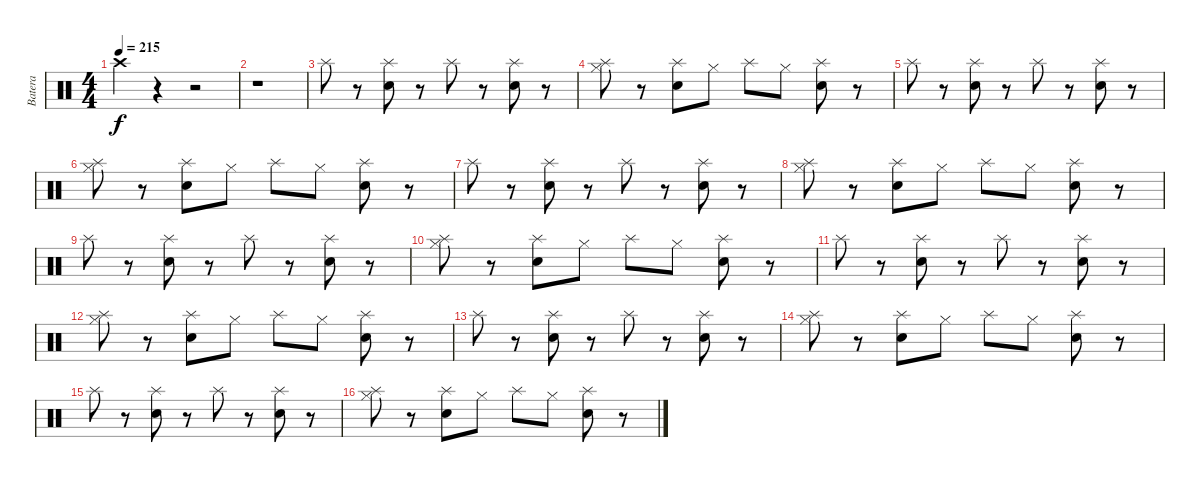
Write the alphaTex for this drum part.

\track ("Batera" "Batera") {instrument percussion}
\staff {score}
\articulation defaults
\ts (4 4)
\tempo 215
\clef neutral
\ks c "Crash high (hit)".4{dy f}
r.4 r.2 |
r.1 |
"Splash (hit)".8 r.8 ("Splash (hit)" "Electric Snare (hit)").8 r.8 "Splash (hit)".8 r.8 ("Splash (hit)" "Electric Snare (hit)").8 r.8 |
("Splash (hit)" "Hi-Hat (closed)").8 r.8 ("Splash (hit)" "Electric Snare (hit)").8 "Hi-Hat (closed)".8 "Splash (hit)".8 "Hi-Hat (closed)".8 ("Splash (hit)" "Electric Snare (hit)").8 r.8 |
"Splash (hit)".8 r.8 ("Splash (hit)" "Electric Snare (hit)").8 r.8 "Splash (hit)".8 r.8 ("Splash (hit)" "Electric Snare (hit)").8 r.8 |
("Splash (hit)" "Hi-Hat (closed)").8 r.8 ("Splash (hit)" "Electric Snare (hit)").8 "Hi-Hat (closed)".8 "Splash (hit)".8 "Hi-Hat (closed)".8 ("Splash (hit)" "Electric Snare (hit)").8 r.8 |
"Splash (hit)".8 r.8 ("Splash (hit)" "Electric Snare (hit)").8 r.8 "Splash (hit)".8 r.8 ("Splash (hit)" "Electric Snare (hit)").8 r.8 |
("Splash (hit)" "Hi-Hat (closed)").8 r.8 ("Splash (hit)" "Electric Snare (hit)").8 "Hi-Hat (closed)".8 "Splash (hit)".8 "Hi-Hat (closed)".8 ("Splash (hit)" "Electric Snare (hit)").8 r.8 |
"Splash (hit)".8 r.8 ("Splash (hit)" "Electric Snare (hit)").8 r.8 "Splash (hit)".8 r.8 ("Splash (hit)" "Electric Snare (hit)").8 r.8 |
("Splash (hit)" "Hi-Hat (closed)").8 r.8 ("Splash (hit)" "Electric Snare (hit)").8 "Hi-Hat (closed)".8 "Splash (hit)".8 "Hi-Hat (closed)".8 ("Splash (hit)" "Electric Snare (hit)").8 r.8 |
"Splash (hit)".8 r.8 ("Splash (hit)" "Electric Snare (hit)").8 r.8 "Splash (hit)".8 r.8 ("Splash (hit)" "Electric Snare (hit)").8 r.8 |
("Splash (hit)" "Hi-Hat (closed)").8 r.8 ("Splash (hit)" "Electric Snare (hit)").8 "Hi-Hat (closed)".8 "Splash (hit)".8 "Hi-Hat (closed)".8 ("Splash (hit)" "Electric Snare (hit)").8 r.8 |
"Splash (hit)".8 r.8 ("Splash (hit)" "Electric Snare (hit)").8 r.8 "Splash (hit)".8 r.8 ("Splash (hit)" "Electric Snare (hit)").8 r.8 |
("Splash (hit)" "Hi-Hat (closed)").8 r.8 ("Splash (hit)" "Electric Snare (hit)").8 "Hi-Hat (closed)".8 "Splash (hit)".8 "Hi-Hat (closed)".8 ("Splash (hit)" "Electric Snare (hit)").8 r.8 |
"Splash (hit)".8 r.8 ("Splash (hit)" "Electric Snare (hit)").8 r.8 "Splash (hit)".8 r.8 ("Splash (hit)" "Electric Snare (hit)").8 r.8 |
("Splash (hit)" "Hi-Hat (closed)").8 r.8 ("Splash (hit)" "Electric Snare (hit)").8 "Hi-Hat (closed)".8 "Splash (hit)".8 "Hi-Hat (closed)".8 ("Splash (hit)" "Electric Snare (hit)").8 r.8
